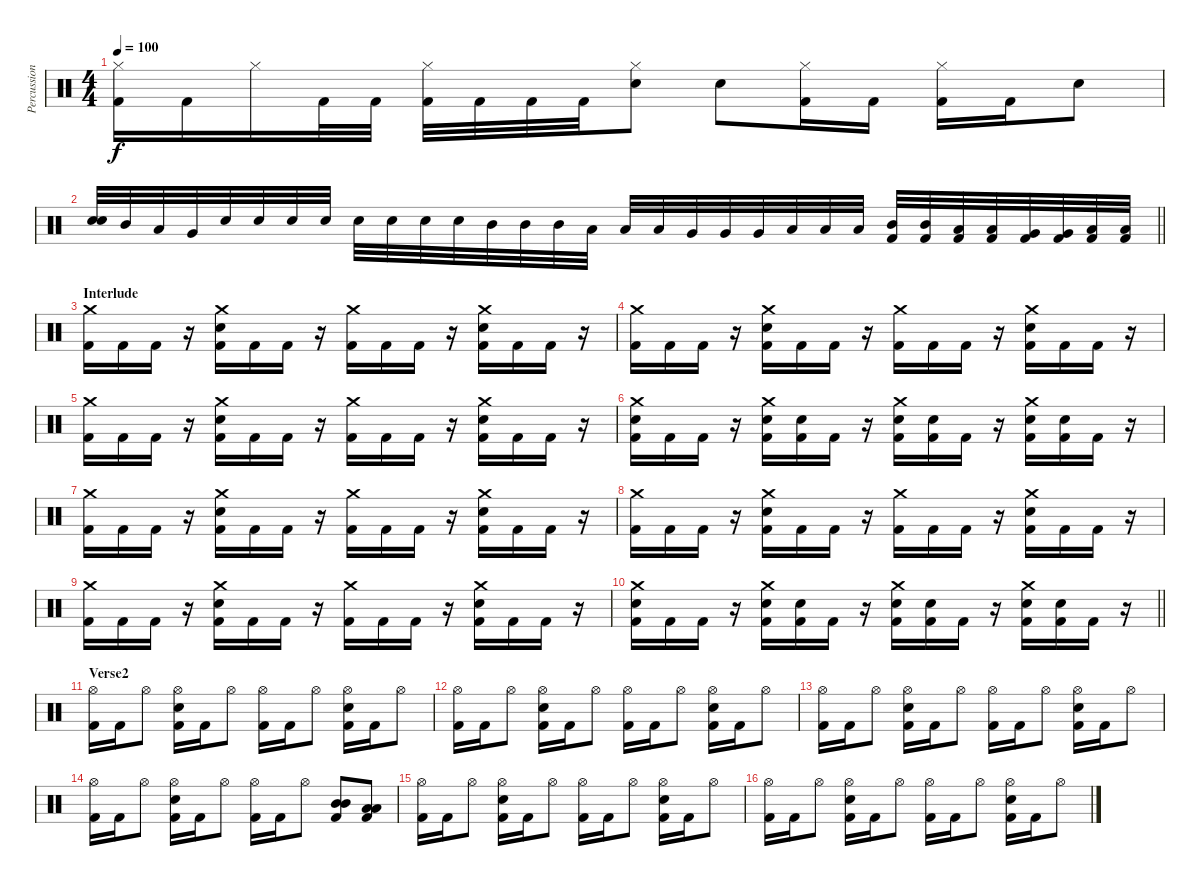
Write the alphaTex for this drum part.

\track ("Percussion" "Percussion") {instrument percussion}
\staff {score}
\articulation defaults
\ts (4 4)
\tempo 100
\clef neutral
\ks c
("Hi-Hat (closed)" "Kick (hit) 2").16{dy f} "Kick (hit) 2".16 "Hi-Hat (closed)".16 "Kick (hit) 2".32 "Kick (hit) 2".32 ("Hi-Hat (closed)" "Kick (hit) 2").32 "Kick (hit) 2".32 "Kick (hit) 2".32 "Kick (hit) 2".32 ("Hi-Hat (closed)" "Electric Snare (hit)").8 "Electric Snare (hit)".8 ("Hi-Hat (closed)" "Kick (hit) 2").16 "Kick (hit) 2".16 ("Hi-Hat (closed)" "Kick (hit) 2").16 "Kick (hit) 2".16 "Electric Snare (hit)".8 |
\barLineRight lightlight
("Electric Snare (hit)" "Electric Snare (hit)").32{bu 60} "Mid Tom (hit)".32 "Low Tom (hit)".32 "Very Low Tom (hit)".32 "Electric Snare (hit)".32 "Electric Snare (hit)".32 "Electric Snare (hit)".32 "Electric Snare (hit)".32 "Electric Snare (hit)".32 "Electric Snare (hit)".32 "Electric Snare (hit)".32 "Electric Snare (hit)".32 "Mid Tom (hit)".32 "Mid Tom (hit)".32 "Mid Tom (hit)".32 "Low Tom (hit)".32 "Low Tom (hit)".32 "Low Tom (hit)".32 "Very Low Tom (hit)".32 "Very Low Tom (hit)".32 "Very Low Tom (hit)".32 "Low Floor Tom (hit)".32 "Low Floor Tom (hit)".32 "Low Floor Tom (hit)".32 ("Mid Tom (hit)" "Kick (hit) 2").32 ("Mid Tom (hit)" "Kick (hit) 2").32 ("Low Tom (hit)" "Kick (hit) 2").32 ("Low Tom (hit)" "Kick (hit) 2").32 ("Very Low Tom (hit)" "Kick (hit) 2").32 ("Very Low Tom (hit)" "Kick (hit) 2").32 ("Low Floor Tom (hit)" "Kick (hit) 2").32 ("Low Floor Tom (hit)" "Kick (hit) 2").32 |
\section ("" "Interlude")
("Crash medium (hit)" "Kick (hit) 2").16 "Kick (hit) 2".16 "Kick (hit) 2".16 r.16 ("Crash medium (hit)" "Electric Snare (hit)" "Kick (hit) 2").16 "Kick (hit) 2".16 "Kick (hit) 2".16 r.16 ("Crash medium (hit)" "Kick (hit) 2").16 "Kick (hit) 2".16 "Kick (hit) 2".16 r.16 ("Crash medium (hit)" "Electric Snare (hit)" "Kick (hit) 2").16 "Kick (hit) 2".16 "Kick (hit) 2".16 r.16 |
("Crash medium (hit)" "Kick (hit) 2").16 "Kick (hit) 2".16 "Kick (hit) 2".16 r.16 ("Crash medium (hit)" "Electric Snare (hit)" "Kick (hit) 2").16 "Kick (hit) 2".16 "Kick (hit) 2".16 r.16 ("Crash medium (hit)" "Kick (hit) 2").16 "Kick (hit) 2".16 "Kick (hit) 2".16 r.16 ("Crash medium (hit)" "Electric Snare (hit)" "Kick (hit) 2").16 "Kick (hit) 2".16 "Kick (hit) 2".16 r.16 |
("Crash medium (hit)" "Kick (hit) 2").16 "Kick (hit) 2".16 "Kick (hit) 2".16 r.16 ("Crash medium (hit)" "Electric Snare (hit)" "Kick (hit) 2").16 "Kick (hit) 2".16 "Kick (hit) 2".16 r.16 ("Crash medium (hit)" "Kick (hit) 2").16 "Kick (hit) 2".16 "Kick (hit) 2".16 r.16 ("Crash medium (hit)" "Electric Snare (hit)" "Kick (hit) 2").16 "Kick (hit) 2".16 "Kick (hit) 2".16 r.16 |
("Crash medium (hit)" "Electric Snare (hit)" "Kick (hit) 2").16 "Kick (hit) 2".16 "Kick (hit) 2".16 r.16 ("Crash medium (hit)" "Electric Snare (hit)" "Kick (hit) 2").16 ("Electric Snare (hit)" "Kick (hit) 2").16 "Kick (hit) 2".16 r.16 ("Crash medium (hit)" "Electric Snare (hit)" "Kick (hit) 2").16 ("Electric Snare (hit)" "Kick (hit) 2").16 "Kick (hit) 2".16 r.16 ("Crash medium (hit)" "Electric Snare (hit)" "Kick (hit) 2").16 ("Electric Snare (hit)" "Kick (hit) 2").16 "Kick (hit) 2".16 r.16 |
("Crash medium (hit)" "Kick (hit) 2").16 "Kick (hit) 2".16 "Kick (hit) 2".16 r.16 ("Crash medium (hit)" "Electric Snare (hit)" "Kick (hit) 2").16 "Kick (hit) 2".16 "Kick (hit) 2".16 r.16 ("Crash medium (hit)" "Kick (hit) 2").16 "Kick (hit) 2".16 "Kick (hit) 2".16 r.16 ("Crash medium (hit)" "Electric Snare (hit)" "Kick (hit) 2").16 "Kick (hit) 2".16 "Kick (hit) 2".16 r.16 |
("Crash medium (hit)" "Kick (hit) 2").16 "Kick (hit) 2".16 "Kick (hit) 2".16 r.16 ("Crash medium (hit)" "Electric Snare (hit)" "Kick (hit) 2").16 "Kick (hit) 2".16 "Kick (hit) 2".16 r.16 ("Crash medium (hit)" "Kick (hit) 2").16 "Kick (hit) 2".16 "Kick (hit) 2".16 r.16 ("Crash medium (hit)" "Electric Snare (hit)" "Kick (hit) 2").16 "Kick (hit) 2".16 "Kick (hit) 2".16 r.16 |
("Crash medium (hit)" "Kick (hit) 2").16 "Kick (hit) 2".16 "Kick (hit) 2".16 r.16 ("Crash medium (hit)" "Electric Snare (hit)" "Kick (hit) 2").16 "Kick (hit) 2".16 "Kick (hit) 2".16 r.16 ("Crash medium (hit)" "Kick (hit) 2").16 "Kick (hit) 2".16 "Kick (hit) 2".16 r.16 ("Crash medium (hit)" "Electric Snare (hit)" "Kick (hit) 2").16 "Kick (hit) 2".16 "Kick (hit) 2".16 r.16 |
\barLineRight lightlight
("Crash medium (hit)" "Electric Snare (hit)" "Kick (hit) 2").16 "Kick (hit) 2".16 "Kick (hit) 2".16 r.16 ("Crash medium (hit)" "Electric Snare (hit)" "Kick (hit) 2").16 ("Electric Snare (hit)" "Kick (hit) 2").16 "Kick (hit) 2".16 r.16 ("Crash medium (hit)" "Electric Snare (hit)" "Kick (hit) 2").16 ("Electric Snare (hit)" "Kick (hit) 2").16 "Kick (hit) 2".16 r.16 ("Crash medium (hit)" "Electric Snare (hit)" "Kick (hit) 2").16 ("Electric Snare (hit)" "Kick (hit) 2").16 "Kick (hit) 2".16 r.16 |
\section ("" "Verse2")
("Hi-Hat (open)" "Kick (hit) 2").16 "Kick (hit) 2".16 "Hi-Hat (open)".8 ("Hi-Hat (open)" "Electric Snare (hit)" "Kick (hit) 2").16 "Kick (hit) 2".16 "Hi-Hat (open)".8 ("Hi-Hat (open)" "Kick (hit) 2").16 "Kick (hit) 2".16 "Hi-Hat (open)".8 ("Hi-Hat (open)" "Electric Snare (hit)" "Kick (hit) 2").16 "Kick (hit) 2".16 "Hi-Hat (open)".8 |
("Hi-Hat (open)" "Kick (hit) 2").16 "Kick (hit) 2".16 "Hi-Hat (open)".8 ("Hi-Hat (open)" "Electric Snare (hit)" "Kick (hit) 2").16 "Kick (hit) 2".16 "Hi-Hat (open)".8 ("Hi-Hat (open)" "Kick (hit) 2").16 "Kick (hit) 2".16 "Hi-Hat (open)".8 ("Hi-Hat (open)" "Electric Snare (hit)" "Kick (hit) 2").16 "Kick (hit) 2".16 "Hi-Hat (open)".8 |
("Hi-Hat (open)" "Kick (hit) 2").16 "Kick (hit) 2".16 "Hi-Hat (open)".8 ("Hi-Hat (open)" "Electric Snare (hit)" "Kick (hit) 2").16 "Kick (hit) 2".16 "Hi-Hat (open)".8 ("Hi-Hat (open)" "Kick (hit) 2").16 "Kick (hit) 2".16 "Hi-Hat (open)".8 ("Hi-Hat (open)" "Electric Snare (hit)" "Kick (hit) 2").16 "Kick (hit) 2".16 "Hi-Hat (open)".8 |
("Hi-Hat (open)" "Kick (hit) 2").16 "Kick (hit) 2".16 "Hi-Hat (open)".8 ("Hi-Hat (open)" "Electric Snare (hit)" "Kick (hit) 2").16 "Kick (hit) 2".16 "Hi-Hat (open)".8 ("Hi-Hat (open)" "Kick (hit) 2").16 "Kick (hit) 2".16 "Hi-Hat (open)".8 ("Mid Tom (hit)" "Mid Tom (hit)" "Kick (hit) 2").8 ("Low Tom (hit)" "Low Tom (hit)" "Kick (hit) 2").8 |
("Hi-Hat (open)" "Kick (hit) 2").16 "Kick (hit) 2".16 "Hi-Hat (open)".8 ("Hi-Hat (open)" "Electric Snare (hit)" "Kick (hit) 2").16 "Kick (hit) 2".16 "Hi-Hat (open)".8 ("Hi-Hat (open)" "Kick (hit) 2").16 "Kick (hit) 2".16 "Hi-Hat (open)".8 ("Hi-Hat (open)" "Electric Snare (hit)" "Kick (hit) 2").16 "Kick (hit) 2".16 "Hi-Hat (open)".8 |
("Hi-Hat (open)" "Kick (hit) 2").16 "Kick (hit) 2".16 "Hi-Hat (open)".8 ("Hi-Hat (open)" "Electric Snare (hit)" "Kick (hit) 2").16 "Kick (hit) 2".16 "Hi-Hat (open)".8 ("Hi-Hat (open)" "Kick (hit) 2").16 "Kick (hit) 2".16 "Hi-Hat (open)".8 ("Hi-Hat (open)" "Electric Snare (hit)" "Kick (hit) 2").16 "Kick (hit) 2".16 "Hi-Hat (open)".8
